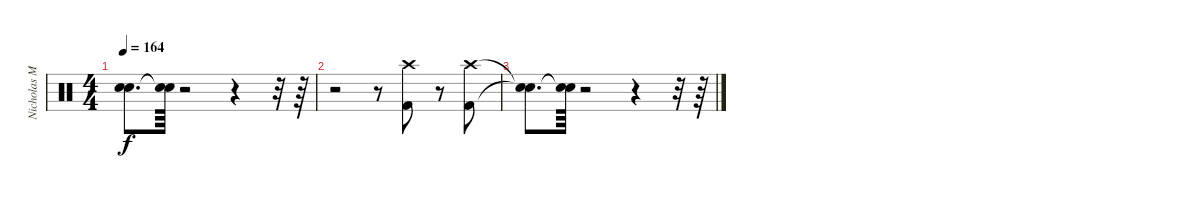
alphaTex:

\track ("Nicholas McBrain (Drums)" "Nicholas M") {instrument percussion}
\staff {score}
\articulation defaults
\ts (4 4)
\tempo 164
\clef neutral
\ks c
("Snare (hit)"{t} "Snare (hit)"{t}).8{d dy f} ("Snare (hit)"{t} "Snare (hit)"{t}).64 r.2 r.4 r.32 r.64 |
r.2 r.8 ("Kick (hit) 2" "Crash high (hit)").8 r.8 ("Kick (hit) 2" "Crash high (hit)").8 |
("Snare (hit)"{t} "Snare (hit)"{t}).8{d} ("Snare (hit)"{t} "Snare (hit)"{t}).64 r.2 r.4 r.32 r.64
